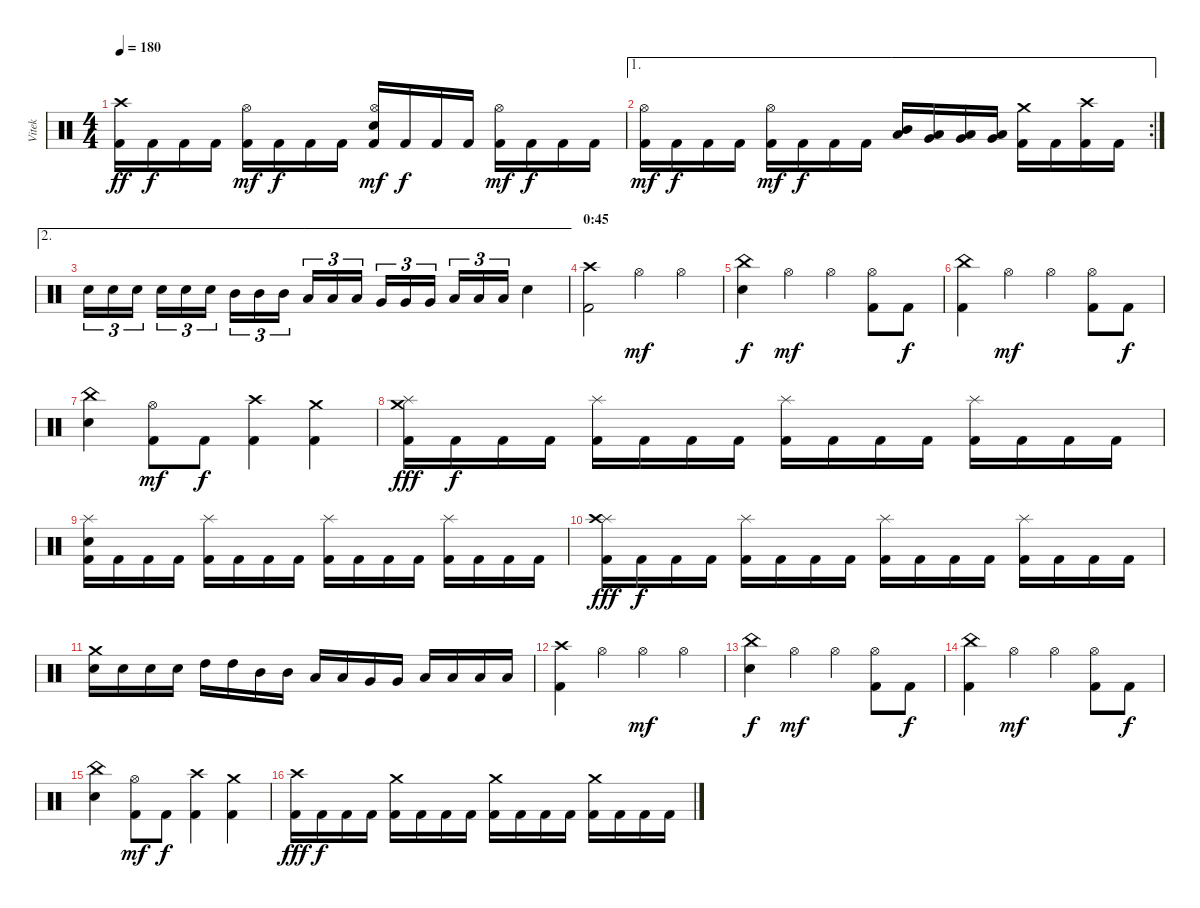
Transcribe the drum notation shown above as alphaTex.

\track ("Vitek" "Vitek") {instrument percussion}
\staff {score}
\articulation defaults
\ts (4 4)
\tempo 180
\clef neutral
\ks c
("Crash high (hit)" "Kick (hit) 2").16{dy ff} "Kick (hit) 2".16{dy f} "Kick (hit) 2".16 "Kick (hit) 2".16 ("Hi-Hat (open)" "Kick (hit) 2").16{dy mf} "Kick (hit) 2".16{dy f} "Kick (hit) 2".16 "Kick (hit) 2".16 ("Hi-Hat (open)" "Electric Snare (hit)" "Kick (hit) 2").16{dy mf} "Kick (hit) 2".16{dy f} "Kick (hit) 2".16 "Kick (hit) 2".16 ("Hi-Hat (open)" "Kick (hit) 2").16{dy mf} "Kick (hit) 2".16{dy f} "Kick (hit) 2".16 "Kick (hit) 2".16 |
\ae 1
\rc 2
("Hi-Hat (open)" "Kick (hit) 2").16{dy mf} "Kick (hit) 2".16{dy f} "Kick (hit) 2".16 "Kick (hit) 2".16 ("Hi-Hat (open)" "Kick (hit) 2").16{dy mf} "Kick (hit) 2".16{dy f} "Kick (hit) 2".16 "Kick (hit) 2".16 ("Mid Tom (hit)" "Low Tom (hit)").16 ("Low Tom (hit)" "Very Low Tom (hit)").16 ("Very Low Tom (hit)" "Low Floor Tom (hit)").16 ("Very Low Tom (hit)" "Low Floor Tom (hit)").16 ("Crash medium (hit)" "Kick (hit) 2").16 "Kick (hit) 2".16 ("Crash high (hit)" "Kick (hit) 2").16 "Kick (hit) 2".16 |
\ae 2 "Electric Snare (hit)".16{tu (3 2)} "Electric Snare (hit)".16{tu (3 2)} "Electric Snare (hit)".16{tu (3 2)} "Electric Snare (hit)".16{tu (3 2)} "Electric Snare (hit)".16{tu (3 2)} "Electric Snare (hit)".16{tu (3 2)} "Mid Tom (hit)".16{tu (3 2)} "Mid Tom (hit)".16{tu (3 2)} "Mid Tom (hit)".16{tu (3 2)} "Low Tom (hit)".16{tu (3 2)} "Low Tom (hit)".16{tu (3 2)} "Low Tom (hit)".16{tu (3 2)} "Very Low Tom (hit)".16{tu (3 2)} "Very Low Tom (hit)".16{tu (3 2)} "Very Low Tom (hit)".16{tu (3 2)} "Low Floor Tom (hit)".16{tu (3 2)} "Low Floor Tom (hit)".16{tu (3 2)} "Low Floor Tom (hit)".16{tu (3 2)} "Electric Snare (hit)".4
|
\section ("" "0:45")
("Crash high (hit)" "Kick (hit) 2").2 "Hi-Hat (open)".4{dy mf} "Hi-Hat (open)".4 |
("China (hit)" "Electric Snare (hit)").4{dy f} "Hi-Hat (open)".4{dy mf} "Hi-Hat (open)".4 ("Hi-Hat (open)" "Kick (hit) 2").8 "Kick (hit) 2".8{dy f} |
("China (hit)" "Kick (hit) 2").4 "Hi-Hat (open)".4{dy mf} "Hi-Hat (open)".4 ("Hi-Hat (open)" "Kick (hit) 2").8 "Kick (hit) 2".8{dy f} |
("China (hit)" "Electric Snare (hit)").4 ("Hi-Hat (open)" "Kick (hit) 2").8{dy mf} "Kick (hit) 2".8{dy f} ("Crash high (hit)" "Kick (hit) 2").4 ("Crash medium (hit)" "Kick (hit) 2").4 |
("Splash (hit)" "Crash medium (hit)" "Kick (hit) 2").16{dy fff} "Kick (hit) 2".16{dy f} "Kick (hit) 2".16 "Kick (hit) 2".16 ("Splash (hit)" "Kick (hit) 2").16 "Kick (hit) 2".16 "Kick (hit) 2".16 "Kick (hit) 2".16 ("Splash (hit)" "Kick (hit) 2").16 "Kick (hit) 2".16 "Kick (hit) 2".16 "Kick (hit) 2".16 ("Splash (hit)" "Kick (hit) 2").16 "Kick (hit) 2".16 "Kick (hit) 2".16 "Kick (hit) 2".16 |
("Splash (hit)" "Electric Snare (hit)" "Kick (hit) 2").16 "Kick (hit) 2".16 "Kick (hit) 2".16 "Kick (hit) 2".16 ("Splash (hit)" "Kick (hit) 2").16 "Kick (hit) 2".16 "Kick (hit) 2".16 "Kick (hit) 2".16 ("Splash (hit)" "Kick (hit) 2").16 "Kick (hit) 2".16 "Kick (hit) 2".16 "Kick (hit) 2".16 ("Splash (hit)" "Kick (hit) 2").16 "Kick (hit) 2".16 "Kick (hit) 2".16 "Kick (hit) 2".16 |
("Splash (hit)" "Crash high (hit)" "Kick (hit) 2").16{dy fff} "Kick (hit) 2".16{dy f} "Kick (hit) 2".16 "Kick (hit) 2".16 ("Splash (hit)" "Kick (hit) 2").16 "Kick (hit) 2".16 "Kick (hit) 2".16 "Kick (hit) 2".16 ("Splash (hit)" "Kick (hit) 2").16 "Kick (hit) 2".16 "Kick (hit) 2".16 "Kick (hit) 2".16 ("Splash (hit)" "Kick (hit) 2").16 "Kick (hit) 2".16 "Kick (hit) 2".16 "Kick (hit) 2".16 |
("Crash medium (hit)" "Electric Snare (hit)").16 "Electric Snare (hit)".16 "Electric Snare (hit)".16 "Electric Snare (hit)".16 "High Tom (hit)".16 "High Tom (hit)".16 "Mid Tom (hit)".16 "Mid Tom (hit)".16 "Low Tom (hit)".16 "Low Tom (hit)".16 "Very Low Tom (hit)".16 "Very Low Tom (hit)".16 "Low Floor Tom (hit)".16 "Low Floor Tom (hit)".16 "Low Floor Tom (hit)".16 "Low Floor Tom (hit)".16 |
("Crash high (hit)" "Kick (hit) 2").4 "Hi-Hat (open)".4 "Hi-Hat (open)".4{dy mf} "Hi-Hat (open)".4 |
("China (hit)" "Electric Snare (hit)").4{dy f} "Hi-Hat (open)".4{dy mf} "Hi-Hat (open)".4 ("Hi-Hat (open)" "Kick (hit) 2").8 "Kick (hit) 2".8{dy f} |
("China (hit)" "Kick (hit) 2").4 "Hi-Hat (open)".4{dy mf} "Hi-Hat (open)".4 ("Hi-Hat (open)" "Kick (hit) 2").8 "Kick (hit) 2".8{dy f} |
("China (hit)" "Electric Snare (hit)").4 ("Hi-Hat (open)" "Kick (hit) 2").8{dy mf} "Kick (hit) 2".8{dy f} ("Crash high (hit)" "Kick (hit) 2").4 ("Crash medium (hit)" "Kick (hit) 2").4 |
("Crash high (hit)" "Kick (hit) 2").16{dy fff} "Kick (hit) 2".16{dy f} "Kick (hit) 2".16 "Kick (hit) 2".16 ("Crash medium (hit)" "Kick (hit) 2").16 "Kick (hit) 2".16 "Kick (hit) 2".16 "Kick (hit) 2".16 ("Crash medium (hit)" "Kick (hit) 2").16 "Kick (hit) 2".16 "Kick (hit) 2".16 "Kick (hit) 2".16 ("Crash medium (hit)" "Kick (hit) 2").16 "Kick (hit) 2".16 "Kick (hit) 2".16 "Kick (hit) 2".16
